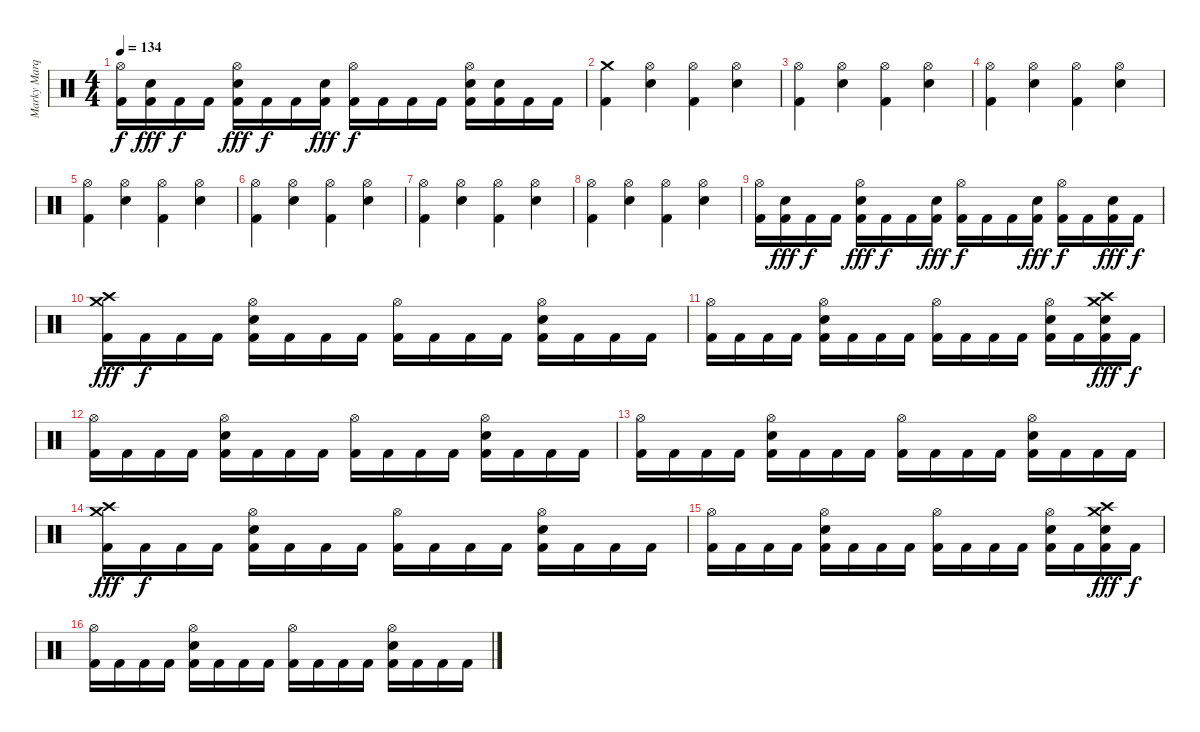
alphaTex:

\track ("Marky Marquis" "Marky Marq") {instrument percussion}
\staff {score}
\articulation defaults
\ts (4 4)
\tempo 134
\clef neutral
\ks c
("Hi-Hat (open)" "Kick (hit) 2").16{dy f} ("Electric Snare (hit)" "Kick (hit) 2").16{dy fff} "Kick (hit) 2".16{dy f} "Kick (hit) 2".16 ("Hi-Hat (open)" "Electric Snare (hit)" "Kick (hit) 2").16{dy fff} "Kick (hit) 2".16{dy f} "Kick (hit) 2".16 ("Electric Snare (hit)" "Kick (hit) 2").16{dy fff} ("Hi-Hat (open)" "Kick (hit) 2").16{dy f} "Kick (hit) 2".16 "Kick (hit) 2".16 "Kick (hit) 2".16 ("Hi-Hat (open)" "Electric Snare (hit)" "Kick (hit) 2").16 ("Electric Snare (hit)" "Kick (hit) 2").16 "Kick (hit) 2".16 "Kick (hit) 2".16 |
("Crash medium (hit)" "Kick (hit) 2").4 ("Hi-Hat (open)" "Electric Snare (hit)").4 ("Hi-Hat (open)" "Kick (hit) 2").4 ("Hi-Hat (open)" "Electric Snare (hit)").4 |
("Hi-Hat (open)" "Kick (hit) 2").4 ("Hi-Hat (open)" "Electric Snare (hit)").4 ("Hi-Hat (open)" "Kick (hit) 2").4 ("Hi-Hat (open)" "Electric Snare (hit)").4 |
("Hi-Hat (open)" "Kick (hit) 2").4 ("Hi-Hat (open)" "Electric Snare (hit)").4 ("Hi-Hat (open)" "Kick (hit) 2").4 ("Hi-Hat (open)" "Electric Snare (hit)").4 |
("Hi-Hat (open)" "Kick (hit) 2").4 ("Hi-Hat (open)" "Electric Snare (hit)").4 ("Hi-Hat (open)" "Kick (hit) 2").4 ("Hi-Hat (open)" "Electric Snare (hit)").4 |
("Hi-Hat (open)" "Kick (hit) 2").4 ("Hi-Hat (open)" "Electric Snare (hit)").4 ("Hi-Hat (open)" "Kick (hit) 2").4 ("Hi-Hat (open)" "Electric Snare (hit)").4 |
("Hi-Hat (open)" "Kick (hit) 2").4 ("Hi-Hat (open)" "Electric Snare (hit)").4 ("Hi-Hat (open)" "Kick (hit) 2").4 ("Hi-Hat (open)" "Electric Snare (hit)").4 |
("Hi-Hat (open)" "Kick (hit) 2").4 ("Hi-Hat (open)" "Electric Snare (hit)").4 ("Hi-Hat (open)" "Kick (hit) 2").4 ("Hi-Hat (open)" "Electric Snare (hit)").4 |
("Hi-Hat (open)" "Kick (hit) 2").16 ("Electric Snare (hit)" "Kick (hit) 2").16{dy fff} "Kick (hit) 2".16{dy f} "Kick (hit) 2".16 ("Hi-Hat (open)" "Electric Snare (hit)" "Kick (hit) 2").16{dy fff} "Kick (hit) 2".16{dy f} "Kick (hit) 2".16 ("Electric Snare (hit)" "Kick (hit) 2").16{dy fff} ("Hi-Hat (open)" "Kick (hit) 2").16{dy f} "Kick (hit) 2".16 "Kick (hit) 2".16 ("Electric Snare (hit)" "Kick (hit) 2").16{dy fff} ("Hi-Hat (open)" "Kick (hit) 2").16{dy f} "Kick (hit) 2".16 ("Electric Snare (hit)" "Kick (hit) 2").16{dy fff} "Kick (hit) 2".16{dy f} |
("Crash high (hit)" "Crash medium (hit)" "Kick (hit) 2").16{dy fff} "Kick (hit) 2".16{dy f} "Kick (hit) 2".16 "Kick (hit) 2".16 ("Hi-Hat (open)" "Electric Snare (hit)" "Kick (hit) 2").16 "Kick (hit) 2".16 "Kick (hit) 2".16 "Kick (hit) 2".16 ("Hi-Hat (open)" "Kick (hit) 2").16 "Kick (hit) 2".16 "Kick (hit) 2".16 "Kick (hit) 2".16 ("Hi-Hat (open)" "Electric Snare (hit)" "Kick (hit) 2").16 "Kick (hit) 2".16 "Kick (hit) 2".16 "Kick (hit) 2".16 |
("Hi-Hat (open)" "Kick (hit) 2").16 "Kick (hit) 2".16 "Kick (hit) 2".16 "Kick (hit) 2".16 ("Hi-Hat (open)" "Electric Snare (hit)" "Kick (hit) 2").16 "Kick (hit) 2".16 "Kick (hit) 2".16 "Kick (hit) 2".16 ("Hi-Hat (open)" "Kick (hit) 2").16 "Kick (hit) 2".16 "Kick (hit) 2".16 "Kick (hit) 2".16 ("Hi-Hat (open)" "Electric Snare (hit)" "Kick (hit) 2").16 "Kick (hit) 2".16 ("Crash high (hit)" "Crash medium (hit)" "Electric Snare (hit)" "Kick (hit) 2").16{dy fff} "Kick (hit) 2".16{dy f} |
("Hi-Hat (open)" "Kick (hit) 2").16 "Kick (hit) 2".16 "Kick (hit) 2".16 "Kick (hit) 2".16 ("Hi-Hat (open)" "Electric Snare (hit)" "Kick (hit) 2").16 "Kick (hit) 2".16 "Kick (hit) 2".16 "Kick (hit) 2".16 ("Hi-Hat (open)" "Kick (hit) 2").16 "Kick (hit) 2".16 "Kick (hit) 2".16 "Kick (hit) 2".16 ("Hi-Hat (open)" "Electric Snare (hit)" "Kick (hit) 2").16 "Kick (hit) 2".16 "Kick (hit) 2".16 "Kick (hit) 2".16 |
("Hi-Hat (open)" "Kick (hit) 2").16 "Kick (hit) 2".16 "Kick (hit) 2".16 "Kick (hit) 2".16 ("Hi-Hat (open)" "Electric Snare (hit)" "Kick (hit) 2").16 "Kick (hit) 2".16 "Kick (hit) 2".16 "Kick (hit) 2".16 ("Hi-Hat (open)" "Kick (hit) 2").16 "Kick (hit) 2".16 "Kick (hit) 2".16 "Kick (hit) 2".16 ("Hi-Hat (open)" "Electric Snare (hit)" "Kick (hit) 2").16 "Kick (hit) 2".16 "Kick (hit) 2".16 "Kick (hit) 2".16 |
("Crash high (hit)" "Crash medium (hit)" "Kick (hit) 2").16{dy fff} "Kick (hit) 2".16{dy f} "Kick (hit) 2".16 "Kick (hit) 2".16 ("Hi-Hat (open)" "Electric Snare (hit)" "Kick (hit) 2").16 "Kick (hit) 2".16 "Kick (hit) 2".16 "Kick (hit) 2".16 ("Hi-Hat (open)" "Kick (hit) 2").16 "Kick (hit) 2".16 "Kick (hit) 2".16 "Kick (hit) 2".16 ("Hi-Hat (open)" "Electric Snare (hit)" "Kick (hit) 2").16 "Kick (hit) 2".16 "Kick (hit) 2".16 "Kick (hit) 2".16 |
("Hi-Hat (open)" "Kick (hit) 2").16 "Kick (hit) 2".16 "Kick (hit) 2".16 "Kick (hit) 2".16 ("Hi-Hat (open)" "Electric Snare (hit)" "Kick (hit) 2").16 "Kick (hit) 2".16 "Kick (hit) 2".16 "Kick (hit) 2".16 ("Hi-Hat (open)" "Kick (hit) 2").16 "Kick (hit) 2".16 "Kick (hit) 2".16 "Kick (hit) 2".16 ("Hi-Hat (open)" "Electric Snare (hit)" "Kick (hit) 2").16 "Kick (hit) 2".16 ("Crash high (hit)" "Crash medium (hit)" "Electric Snare (hit)" "Kick (hit) 2").16{dy fff} "Kick (hit) 2".16{dy f} |
("Hi-Hat (open)" "Kick (hit) 2").16 "Kick (hit) 2".16 "Kick (hit) 2".16 "Kick (hit) 2".16 ("Hi-Hat (open)" "Electric Snare (hit)" "Kick (hit) 2").16 "Kick (hit) 2".16 "Kick (hit) 2".16 "Kick (hit) 2".16 ("Hi-Hat (open)" "Kick (hit) 2").16 "Kick (hit) 2".16 "Kick (hit) 2".16 "Kick (hit) 2".16 ("Hi-Hat (open)" "Electric Snare (hit)" "Kick (hit) 2").16 "Kick (hit) 2".16 "Kick (hit) 2".16 "Kick (hit) 2".16
